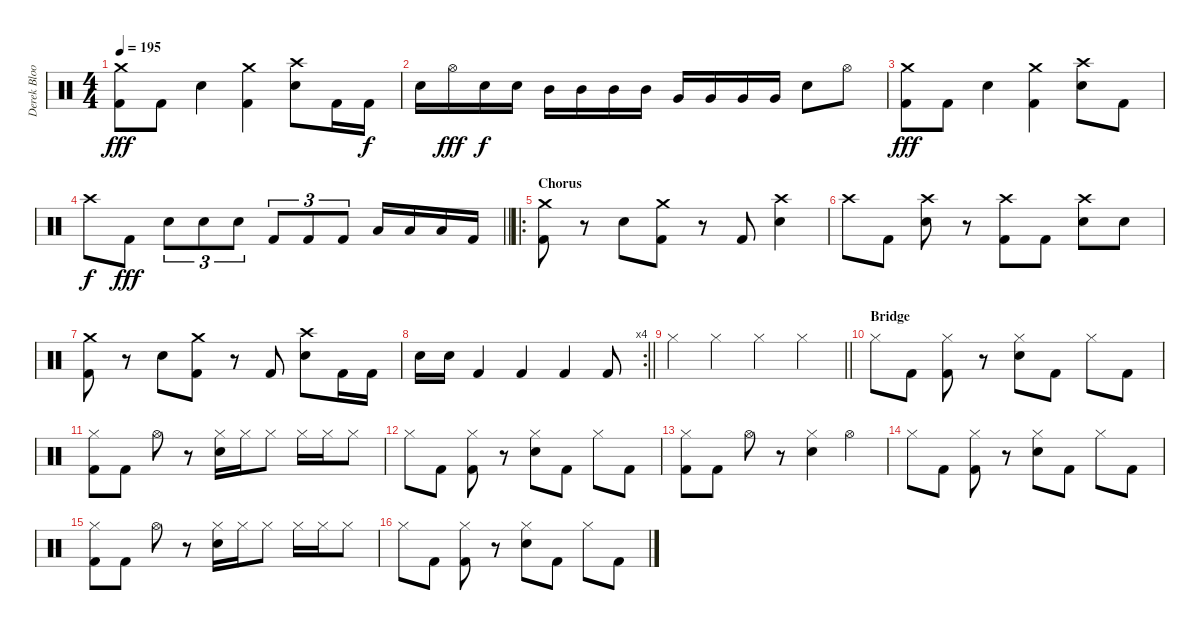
\track ("Derek Bloom" "Derek Bloo") {instrument percussion}
\staff {score}
\articulation defaults
\ts (4 4)
\tempo 195
\clef neutral
\ks c
("Crash medium (hit)" "Kick (hit) 2").8{dy fff} "Kick (hit) 2".8 "Electric Snare (hit)".4 ("Crash medium (hit)" "Kick (hit) 2").4 ("Crash high (hit)" "Electric Snare (hit)").8 "Kick (hit) 2".16 "Kick (hit) 2".16{dy f} |
"Electric Snare (hit)".16 "Hi-Hat (open)".16{dy fff} "Electric Snare (hit)".16{dy f} "Electric Snare (hit)".16 "Mid Tom (hit)".16 "Mid Tom (hit)".16 "Mid Tom (hit)".16 "Mid Tom (hit)".16 "Very Low Tom (hit)".16 "Very Low Tom (hit)".16 "Very Low Tom (hit)".16 "Very Low Tom (hit)".16 "Electric Snare (hit)".8 "Hi-Hat (open)".8 |
("Crash medium (hit)" "Kick (hit) 2").8{dy fff} "Kick (hit) 2".8 "Electric Snare (hit)".4 ("Crash medium (hit)" "Kick (hit) 2").4 ("Crash high (hit)" "Electric Snare (hit)").8 "Kick (hit) 2".8 |
\barLineRight lightlight "Crash high (hit)".8{dy f} "Kick (hit) 2".8{dy fff} "Electric Snare (hit)".8{tu (3 2)} "Electric Snare (hit)".8{tu (3 2)} "Electric Snare (hit)".8{tu (3 2)} "Kick (hit) 2".8{tu (3 2)} "Kick (hit) 2".8{tu (3 2)} "Kick (hit) 2".8{tu (3 2)} "Low Floor Tom (hit)".16 "Low Floor Tom (hit)".16 "Low Floor Tom (hit)".16 "Kick (hit) 2".16
|
\ro
\section ("" "Chorus")
("Crash medium (hit)" "Kick (hit) 2").8 r.8 "Electric Snare (hit)".8 ("Crash medium (hit)" "Kick (hit) 2").8 r.8 "Kick (hit) 2".8 ("Crash high (hit)" "Snare (hit) 2").4 |
"Crash high (hit)".8 "Kick (hit) 2".8 ("Crash high (hit)" "Electric Snare (hit)").8 r.8 ("Crash high (hit)" "Kick (hit) 2").8 "Kick (hit) 2".8 ("Crash high (hit)" "Electric Snare (hit)").8 "Electric Snare (hit)".8 |
("Crash medium (hit)" "Kick (hit) 2").8 r.8 "Electric Snare (hit)".8 ("Crash medium (hit)" "Kick (hit) 2").8 r.8 "Kick (hit) 2".8 ("Crash high (hit)" "Electric Snare (hit)").8 "Kick (hit) 2".16 "Kick (hit) 2".16 |
\rc 4
\barLineRight lightlight "Electric Snare (hit)".16 "Electric Snare (hit)".16 "Kick (hit) 2".4 "Kick (hit) 2".4 "Kick (hit) 2".4 "Kick (hit) 2".8
|
\barLineRight lightlight "Hi-Hat (closed)".4 "Hi-Hat (closed)".4 "Hi-Hat (closed)".4 "Hi-Hat (closed)".4
|
\section ("" "Bridge")
"Hi-Hat (closed)".8 "Kick (hit) 2".8 ("Hi-Hat (closed)" "Kick (hit) 2").8 r.8 ("Hi-Hat (closed)" "Electric Snare (hit)").8 "Kick (hit) 2".8 "Hi-Hat (closed)".8 "Kick (hit) 2".8 |
("Hi-Hat (closed)" "Kick (hit) 2").8 "Kick (hit) 2".8 "Hi-Hat (open)".8 r.8 ("Hi-Hat (closed)" "Electric Snare (hit)").16 "Hi-Hat (closed)".16 "Hi-Hat (closed)".8 "Hi-Hat (closed)".16 "Hi-Hat (closed)".16 "Hi-Hat (closed)".8 |
"Hi-Hat (closed)".8 "Kick (hit) 2".8 ("Hi-Hat (closed)" "Kick (hit) 2").8 r.8 ("Hi-Hat (closed)" "Electric Snare (hit)").8 "Kick (hit) 2".8 "Hi-Hat (closed)".8 "Kick (hit) 2".8 |
("Hi-Hat (closed)" "Kick (hit) 2").8 "Kick (hit) 2".8 "Hi-Hat (open)".8 r.8 ("Hi-Hat (closed)" "Electric Snare (hit)").4 "Hi-Hat (open)".4 |
"Hi-Hat (closed)".8 "Kick (hit) 2".8 ("Hi-Hat (closed)" "Kick (hit) 2").8 r.8 ("Hi-Hat (closed)" "Electric Snare (hit)").8 "Kick (hit) 2".8 "Hi-Hat (closed)".8 "Kick (hit) 2".8 |
("Hi-Hat (closed)" "Kick (hit) 2").8 "Kick (hit) 2".8 "Hi-Hat (open)".8 r.8 ("Hi-Hat (closed)" "Electric Snare (hit)").16 "Hi-Hat (closed)".16 "Hi-Hat (closed)".8 "Hi-Hat (closed)".16 "Hi-Hat (closed)".16 "Hi-Hat (closed)".8 |
"Hi-Hat (closed)".8 "Kick (hit) 2".8 ("Hi-Hat (closed)" "Kick (hit) 2").8 r.8 ("Hi-Hat (closed)" "Electric Snare (hit)").8 "Kick (hit) 2".8 "Hi-Hat (closed)".8 "Kick (hit) 2".8
